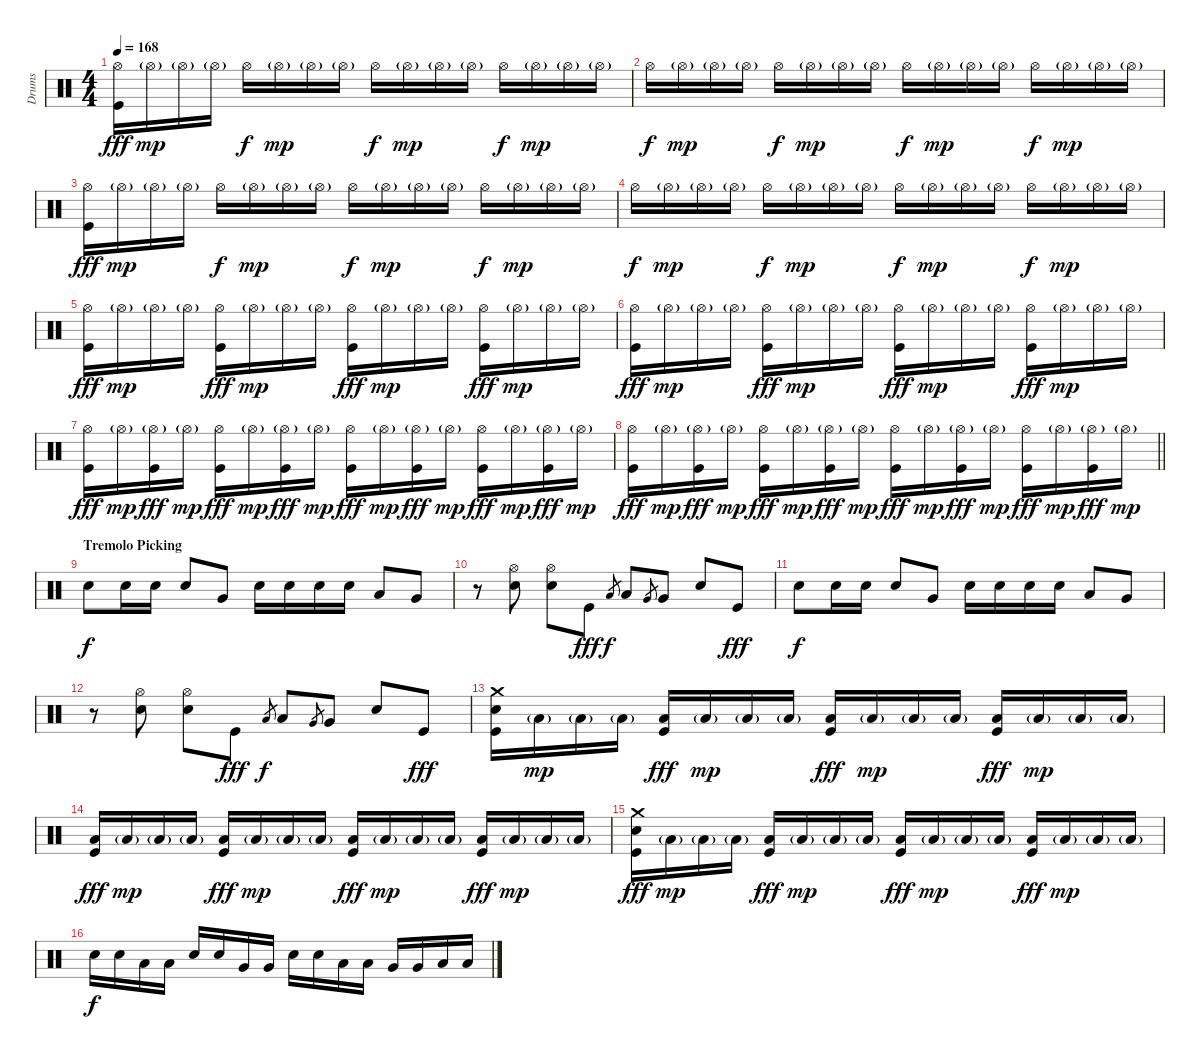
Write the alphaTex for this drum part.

\track ("Drums" "Drums") {instrument percussion}
\staff {score}
\articulation defaults
\ts (4 4)
\tempo 168
\clef neutral
\ks c
("Hi-Hat (open)" "Kick (hit)").16{dy fff} "Hi-Hat (open)"{g}.16{dy mp} "Hi-Hat (open)"{g}.16 "Hi-Hat (open)"{g}.16 "Hi-Hat (open)".16{dy f} "Hi-Hat (open)"{g}.16{dy mp} "Hi-Hat (open)"{g}.16 "Hi-Hat (open)"{g}.16 "Hi-Hat (open)".16{dy f} "Hi-Hat (open)"{g}.16{dy mp} "Hi-Hat (open)"{g}.16 "Hi-Hat (open)"{g}.16 "Hi-Hat (open)".16{dy f} "Hi-Hat (open)"{g}.16{dy mp} "Hi-Hat (open)"{g}.16 "Hi-Hat (open)"{g}.16 |
"Hi-Hat (open)".16{dy f} "Hi-Hat (open)"{g}.16{dy mp} "Hi-Hat (open)"{g}.16 "Hi-Hat (open)"{g}.16 "Hi-Hat (open)".16{dy f} "Hi-Hat (open)"{g}.16{dy mp} "Hi-Hat (open)"{g}.16 "Hi-Hat (open)"{g}.16 "Hi-Hat (open)".16{dy f} "Hi-Hat (open)"{g}.16{dy mp} "Hi-Hat (open)"{g}.16 "Hi-Hat (open)"{g}.16 "Hi-Hat (open)".16{dy f} "Hi-Hat (open)"{g}.16{dy mp} "Hi-Hat (open)"{g}.16 "Hi-Hat (open)"{g}.16 |
("Hi-Hat (open)" "Kick (hit)").16{dy fff} "Hi-Hat (open)"{g}.16{dy mp} "Hi-Hat (open)"{g}.16 "Hi-Hat (open)"{g}.16 "Hi-Hat (open)".16{dy f} "Hi-Hat (open)"{g}.16{dy mp} "Hi-Hat (open)"{g}.16 "Hi-Hat (open)"{g}.16 "Hi-Hat (open)".16{dy f} "Hi-Hat (open)"{g}.16{dy mp} "Hi-Hat (open)"{g}.16 "Hi-Hat (open)"{g}.16 "Hi-Hat (open)".16{dy f} "Hi-Hat (open)"{g}.16{dy mp} "Hi-Hat (open)"{g}.16 "Hi-Hat (open)"{g}.16 |
"Hi-Hat (open)".16{dy f} "Hi-Hat (open)"{g}.16{dy mp} "Hi-Hat (open)"{g}.16 "Hi-Hat (open)"{g}.16 "Hi-Hat (open)".16{dy f} "Hi-Hat (open)"{g}.16{dy mp} "Hi-Hat (open)"{g}.16 "Hi-Hat (open)"{g}.16 "Hi-Hat (open)".16{dy f} "Hi-Hat (open)"{g}.16{dy mp} "Hi-Hat (open)"{g}.16 "Hi-Hat (open)"{g}.16 "Hi-Hat (open)".16{dy f} "Hi-Hat (open)"{g}.16{dy mp} "Hi-Hat (open)"{g}.16 "Hi-Hat (open)"{g}.16 |
("Hi-Hat (open)" "Kick (hit)").16{dy fff} "Hi-Hat (open)"{g}.16{dy mp} "Hi-Hat (open)"{g}.16 "Hi-Hat (open)"{g}.16 ("Hi-Hat (open)" "Kick (hit)").16{dy fff} "Hi-Hat (open)"{g}.16{dy mp} "Hi-Hat (open)"{g}.16 "Hi-Hat (open)"{g}.16 ("Hi-Hat (open)" "Kick (hit)").16{dy fff} "Hi-Hat (open)"{g}.16{dy mp} "Hi-Hat (open)"{g}.16 "Hi-Hat (open)"{g}.16 ("Hi-Hat (open)" "Kick (hit)").16{dy fff} "Hi-Hat (open)"{g}.16{dy mp} "Hi-Hat (open)"{g}.16 "Hi-Hat (open)"{g}.16 |
("Hi-Hat (open)" "Kick (hit)").16{dy fff} "Hi-Hat (open)"{g}.16{dy mp} "Hi-Hat (open)"{g}.16 "Hi-Hat (open)"{g}.16 ("Hi-Hat (open)" "Kick (hit)").16{dy fff} "Hi-Hat (open)"{g}.16{dy mp} "Hi-Hat (open)"{g}.16 "Hi-Hat (open)"{g}.16 ("Hi-Hat (open)" "Kick (hit)").16{dy fff} "Hi-Hat (open)"{g}.16{dy mp} "Hi-Hat (open)"{g}.16 "Hi-Hat (open)"{g}.16 ("Hi-Hat (open)" "Kick (hit)").16{dy fff} "Hi-Hat (open)"{g}.16{dy mp} "Hi-Hat (open)"{g}.16 "Hi-Hat (open)"{g}.16 |
("Hi-Hat (open)" "Kick (hit)").16{dy fff} "Hi-Hat (open)"{g}.16{dy mp} ("Hi-Hat (open)"{g} "Kick (hit)").16{dy fff} "Hi-Hat (open)"{g}.16{dy mp} ("Hi-Hat (open)" "Kick (hit)").16{dy fff} "Hi-Hat (open)"{g}.16{dy mp} ("Hi-Hat (open)"{g} "Kick (hit)").16{dy fff} "Hi-Hat (open)"{g}.16{dy mp} ("Hi-Hat (open)" "Kick (hit)").16{dy fff} "Hi-Hat (open)"{g}.16{dy mp} ("Hi-Hat (open)"{g} "Kick (hit)").16{dy fff} "Hi-Hat (open)"{g}.16{dy mp} ("Hi-Hat (open)" "Kick (hit)").16{dy fff} "Hi-Hat (open)"{g}.16{dy mp} ("Hi-Hat (open)"{g} "Kick (hit)").16{dy fff} "Hi-Hat (open)"{g}.16{dy mp} |
\barLineRight lightlight
("Hi-Hat (open)" "Kick (hit)").16{dy fff} "Hi-Hat (open)"{g}.16{dy mp} ("Hi-Hat (open)"{g} "Kick (hit)").16{dy fff} "Hi-Hat (open)"{g}.16{dy mp} ("Hi-Hat (open)" "Kick (hit)").16{dy fff} "Hi-Hat (open)"{g}.16{dy mp} ("Hi-Hat (open)"{g} "Kick (hit)").16{dy fff} "Hi-Hat (open)"{g}.16{dy mp} ("Hi-Hat (open)" "Kick (hit)").16{dy fff} "Hi-Hat (open)"{g}.16{dy mp} ("Hi-Hat (open)"{g} "Kick (hit)").16{dy fff} "Hi-Hat (open)"{g}.16{dy mp} ("Hi-Hat (open)" "Kick (hit)").16{dy fff} "Hi-Hat (open)"{g}.16{dy mp} ("Hi-Hat (open)"{g} "Kick (hit)").16{dy fff} "Hi-Hat (open)"{g}.16{dy mp} |
\section ("" "Tremolo Picking")
"Snare (hit) 2".8{dy f} "Snare (hit) 2".16 "Snare (hit) 2".16 "Snare (hit) 2".8 "Very Low Tom (hit)".8 "Snare (hit) 2".16 "Snare (hit) 2".16 "Snare (hit) 2".16 "Snare (hit) 2".16 "Low Tom (hit)".8 "Very Low Tom (hit)".8 |
r.8 ("Hi-Hat (open)" "Snare (hit) 2").8 ("Hi-Hat (open)" "Snare (hit) 2").8 "Kick (hit)".8{dy fff} "Low Tom (hit)".8{gr dy f} "Low Tom (hit)".8 "Very Low Tom (hit)".8{gr} "Very Low Tom (hit)".8 "Snare (hit) 2".8 "Kick (hit)".8{dy fff} |
"Snare (hit) 2".8{dy f} "Snare (hit) 2".16 "Snare (hit) 2".16 "Snare (hit) 2".8 "Very Low Tom (hit)".8 "Snare (hit) 2".16 "Snare (hit) 2".16 "Snare (hit) 2".16 "Snare (hit) 2".16 "Low Tom (hit)".8 "Very Low Tom (hit)".8 |
r.8 ("Hi-Hat (open)" "Snare (hit) 2").8 ("Hi-Hat (open)" "Snare (hit) 2").8 "Kick (hit)".8{dy fff} "Low Tom (hit)".8{gr dy f} "Low Tom (hit)".8 "Very Low Tom (hit)".8{gr} "Very Low Tom (hit)".8 "Snare (hit) 2".8 "Kick (hit)".8{dy fff} |
("Crash medium (hit)" "Snare (hit) 2" "Kick (hit)").16 "Low Floor Tom (hit)"{g}.16{dy mp} "Low Floor Tom (hit)"{g}.16 "Low Floor Tom (hit)"{g}.16 ("Low Floor Tom (hit)" "Kick (hit)").16{dy fff} "Low Floor Tom (hit)"{g}.16{dy mp} "Low Floor Tom (hit)"{g}.16 "Low Floor Tom (hit)"{g}.16 ("Low Floor Tom (hit)" "Kick (hit)").16{dy fff} "Low Floor Tom (hit)"{g}.16{dy mp} "Low Floor Tom (hit)"{g}.16 "Low Floor Tom (hit)"{g}.16 ("Low Floor Tom (hit)" "Kick (hit)").16{dy fff} "Low Floor Tom (hit)"{g}.16{dy mp} "Low Floor Tom (hit)"{g}.16 "Low Floor Tom (hit)"{g}.16 |
("Low Floor Tom (hit)" "Kick (hit)").16{dy fff} "Low Floor Tom (hit)"{g}.16{dy mp} "Low Floor Tom (hit)"{g}.16 "Low Floor Tom (hit)"{g}.16 ("Low Floor Tom (hit)" "Kick (hit)").16{dy fff} "Low Floor Tom (hit)"{g}.16{dy mp} "Low Floor Tom (hit)"{g}.16 "Low Floor Tom (hit)"{g}.16 ("Low Floor Tom (hit)" "Kick (hit)").16{dy fff} "Low Floor Tom (hit)"{g}.16{dy mp} "Low Floor Tom (hit)"{g}.16 "Low Floor Tom (hit)"{g}.16 ("Low Floor Tom (hit)" "Kick (hit)").16{dy fff} "Low Floor Tom (hit)"{g}.16{dy mp} "Low Floor Tom (hit)"{g}.16 "Low Floor Tom (hit)"{g}.16 |
("Crash medium (hit)" "Snare (hit) 2" "Kick (hit)").16{dy fff} "Low Floor Tom (hit)"{g}.16{dy mp} "Low Floor Tom (hit)"{g}.16 "Low Floor Tom (hit)"{g}.16 ("Low Floor Tom (hit)" "Kick (hit)").16{dy fff} "Low Floor Tom (hit)"{g}.16{dy mp} "Low Floor Tom (hit)"{g}.16 "Low Floor Tom (hit)"{g}.16 ("Low Floor Tom (hit)" "Kick (hit)").16{dy fff} "Low Floor Tom (hit)"{g}.16{dy mp} "Low Floor Tom (hit)"{g}.16 "Low Floor Tom (hit)"{g}.16 ("Low Floor Tom (hit)" "Kick (hit)").16{dy fff} "Low Floor Tom (hit)"{g}.16{dy mp} "Low Floor Tom (hit)"{g}.16 "Low Floor Tom (hit)"{g}.16 |
"Snare (hit) 2".16{dy f} "Snare (hit) 2".16 "Low Tom (hit)".16 "Low Tom (hit)".16 "Snare (hit) 2".16 "Snare (hit) 2".16 "Very Low Tom (hit)".16 "Very Low Tom (hit)".16 "Snare (hit) 2".16 "Snare (hit) 2".16 "Low Tom (hit)".16 "Low Tom (hit)".16 "Very Low Tom (hit)".16 "Very Low Tom (hit)".16 "Low Floor Tom (hit)".16 "Low Floor Tom (hit)".16
